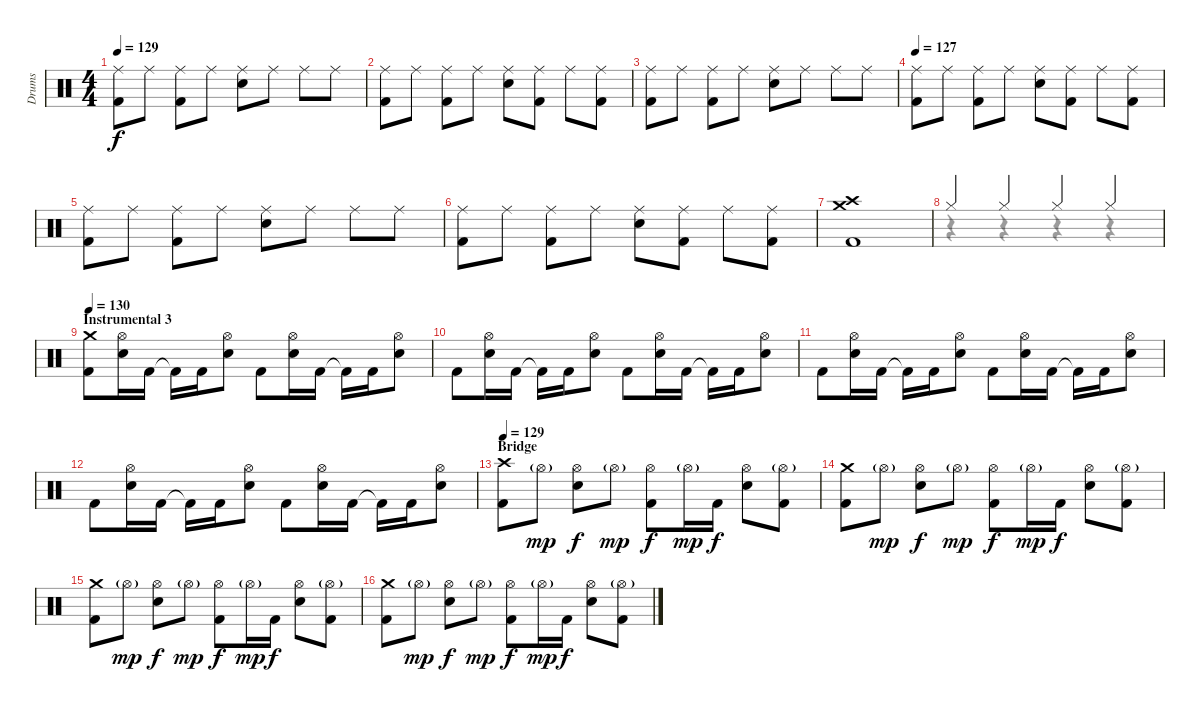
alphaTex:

\track ("Drums" "Drums") {instrument percussion}
\staff {score}
\articulation defaults
\voice
\ts (4 4)
\tempo 129
\clef neutral
\ks c
("Ride (middle)" "Kick (hit) 2").8{dy f} "Ride (middle)".8 ("Ride (middle)" "Kick (hit) 2").8 "Ride (middle)".8 ("Ride (middle)" "Snare (hit) 2").8 "Ride (middle)".8 "Ride (middle)".8 "Ride (middle)".8 |
("Ride (middle)" "Kick (hit) 2").8 "Ride (middle)".8 ("Ride (middle)" "Kick (hit) 2").8 "Ride (middle)".8 ("Ride (middle)" "Snare (hit) 2").8 ("Ride (middle)" "Kick (hit) 2").8 "Ride (middle)".8 ("Ride (middle)" "Kick (hit) 2").8 |
("Ride (middle)" "Kick (hit) 2").8 "Ride (middle)".8 ("Ride (middle)" "Kick (hit) 2").8 "Ride (middle)".8 ("Ride (middle)" "Snare (hit) 2").8 "Ride (middle)".8 "Ride (middle)".8 "Ride (middle)".8 |
\tempo 127
("Ride (middle)" "Kick (hit) 2").8 "Ride (middle)".8 ("Ride (middle)" "Kick (hit) 2").8 "Ride (middle)".8 ("Ride (middle)" "Snare (hit) 2").8 ("Ride (middle)" "Kick (hit) 2").8 "Ride (middle)".8 ("Ride (middle)" "Kick (hit) 2").8 |
("Ride (middle)" "Kick (hit) 2").8 "Ride (middle)".8 ("Ride (middle)" "Kick (hit) 2").8 "Ride (middle)".8 ("Ride (middle)" "Snare (hit) 2").8 "Ride (middle)".8 "Ride (middle)".8 "Ride (middle)".8 |
("Ride (middle)" "Kick (hit) 2").8 "Ride (middle)".8 ("Ride (middle)" "Kick (hit) 2").8 "Ride (middle)".8 ("Ride (middle)" "Snare (hit) 2").8 ("Ride (middle)" "Kick (hit) 2").8 "Ride (middle)".8 ("Ride (middle)" "Kick (hit) 2").8 |
("Crash medium (hit)" "Crash high (hit)" "Kick (hit) 2").1 |
"Hi-Hat (closed)".4 "Hi-Hat (closed)".4 "Hi-Hat (closed)".4 "Hi-Hat (closed)".4 |
\section ("" "Instrumental 3")
\tempo 130
("Crash medium (hit)" "Kick (hit) 2").8 ("Hi-Hat (open)" "Snare (hit) 2").16 "Kick (hit) 2".16 "Kick (hit) 2"{t}.16 "Kick (hit) 2".16 ("Hi-Hat (open)" "Snare (hit) 2").8 "Kick (hit) 2".8 ("Hi-Hat (open)" "Snare (hit) 2").16 "Kick (hit) 2".16 "Kick (hit) 2"{t}.16 "Kick (hit) 2".16 ("Hi-Hat (open)" "Snare (hit) 2").8 |
"Kick (hit) 2".8 ("Hi-Hat (open)" "Snare (hit) 2").16 "Kick (hit) 2".16 "Kick (hit) 2"{t}.16 "Kick (hit) 2".16 ("Hi-Hat (open)" "Snare (hit) 2").8 "Kick (hit) 2".8 ("Hi-Hat (open)" "Snare (hit) 2").16 "Kick (hit) 2".16 "Kick (hit) 2"{t}.16 "Kick (hit) 2".16 ("Hi-Hat (open)" "Snare (hit) 2").8 |
"Kick (hit) 2".8 ("Hi-Hat (open)" "Snare (hit) 2").16 "Kick (hit) 2".16 "Kick (hit) 2"{t}.16 "Kick (hit) 2".16 ("Hi-Hat (open)" "Snare (hit) 2").8 "Kick (hit) 2".8 ("Hi-Hat (open)" "Snare (hit) 2").16 "Kick (hit) 2".16 "Kick (hit) 2"{t}.16 "Kick (hit) 2".16 ("Hi-Hat (open)" "Snare (hit) 2").8 |
"Kick (hit) 2".8 ("Hi-Hat (open)" "Snare (hit) 2").16 "Kick (hit) 2".16 "Kick (hit) 2"{t}.16 "Kick (hit) 2".16 ("Hi-Hat (open)" "Snare (hit) 2").8 "Kick (hit) 2".8 ("Hi-Hat (open)" "Snare (hit) 2").16 "Kick (hit) 2".16 "Kick (hit) 2"{t}.16 "Kick (hit) 2".16 ("Hi-Hat (open)" "Snare (hit) 2").8 |
\section ("" "Bridge")
\tempo 129
("Crash high (hit)" "Kick (hit) 2").8 "Hi-Hat (open)"{g}.8{dy mp} ("Hi-Hat (open)" "Snare (hit) 2").8{dy f} "Hi-Hat (open)"{g}.8{dy mp} ("Hi-Hat (open)" "Kick (hit) 2").8{dy f} "Hi-Hat (open)"{g}.16{dy mp} "Kick (hit) 2".16{dy f} ("Hi-Hat (open)" "Snare (hit) 2").8 ("Hi-Hat (open)"{g} "Kick (hit) 2").8 |
("Crash medium (hit)" "Kick (hit) 2").8 "Hi-Hat (open)"{g}.8{dy mp} ("Hi-Hat (open)" "Snare (hit) 2").8{dy f} "Hi-Hat (open)"{g}.8{dy mp} ("Hi-Hat (open)" "Kick (hit) 2").8{dy f} "Hi-Hat (open)"{g}.16{dy mp} "Kick (hit) 2".16{dy f} ("Hi-Hat (open)" "Snare (hit) 2").8 ("Hi-Hat (open)"{g} "Kick (hit) 2").8 |
("Crash medium (hit)" "Kick (hit) 2").8 "Hi-Hat (open)"{g}.8{dy mp} ("Hi-Hat (open)" "Snare (hit) 2").8{dy f} "Hi-Hat (open)"{g}.8{dy mp} ("Hi-Hat (open)" "Kick (hit) 2").8{dy f} "Hi-Hat (open)"{g}.16{dy mp} "Kick (hit) 2".16{dy f} ("Hi-Hat (open)" "Snare (hit) 2").8 ("Hi-Hat (open)"{g} "Kick (hit) 2").8 |
("Crash medium (hit)" "Kick (hit) 2").8 "Hi-Hat (open)"{g}.8{dy mp} ("Hi-Hat (open)" "Snare (hit) 2").8{dy f} "Hi-Hat (open)"{g}.8{dy mp} ("Hi-Hat (open)" "Kick (hit) 2").8{dy f} "Hi-Hat (open)"{g}.16{dy mp} "Kick (hit) 2".16{dy f} ("Hi-Hat (open)" "Snare (hit) 2").8 ("Hi-Hat (open)"{g} "Kick (hit) 2").8
\voice
\clef neutral
\ottava regular
\simile none
\ks c
|
|
|
|
|
|
|
r.4 r.4 r.4 r.4 |
|
|
|
|
|
|
|
